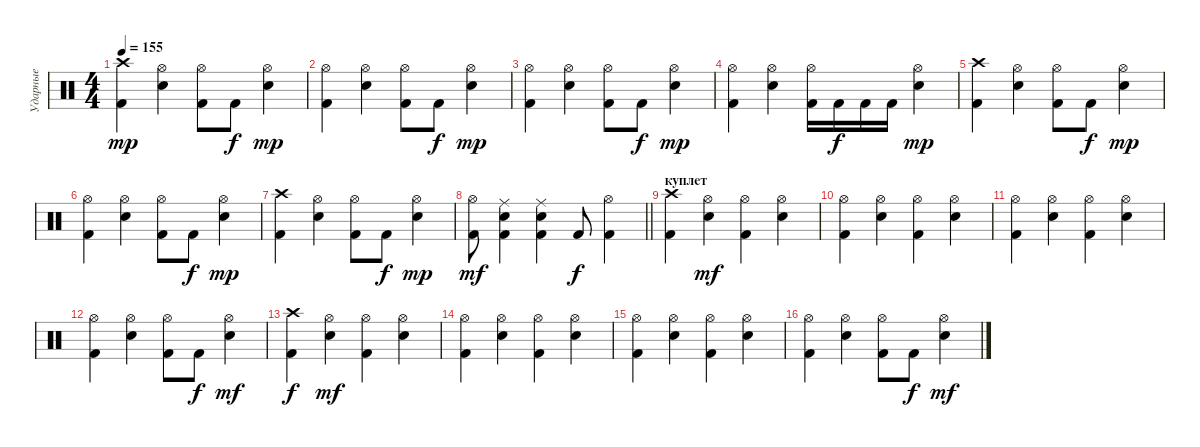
\track ("Ударные" "Ударные") {instrument percussion}
\staff {score}
\articulation defaults
\ts (4 4)
\tempo 155
\clef neutral
\ks c
("Kick (hit) 2" "Crash high (hit)").4{dy mp} ("Snare (hit) 2" "Hi-Hat (open)").4 ("Kick (hit) 2" "Hi-Hat (open)").8 "Kick (hit) 2".8{dy f} ("Snare (hit) 2" "Hi-Hat (open)").4{dy mp} |
("Kick (hit) 2" "Hi-Hat (open)").4 ("Snare (hit) 2" "Hi-Hat (open)").4 ("Kick (hit) 2" "Hi-Hat (open)").8 "Kick (hit) 2".8{dy f} ("Snare (hit) 2" "Hi-Hat (open)").4{dy mp} |
("Kick (hit) 2" "Hi-Hat (open)").4 ("Snare (hit) 2" "Hi-Hat (open)").4 ("Kick (hit) 2" "Hi-Hat (open)").8 "Kick (hit) 2".8{dy f} ("Snare (hit) 2" "Hi-Hat (open)").4{dy mp} |
("Kick (hit) 2" "Hi-Hat (open)").4 ("Snare (hit) 2" "Hi-Hat (open)").4 ("Kick (hit) 2" "Hi-Hat (open)").16 "Kick (hit) 2".16{dy f} "Kick (hit) 2".16 "Kick (hit) 2".16 ("Snare (hit) 2" "Hi-Hat (open)").4{dy mp} |
("Kick (hit) 2" "Crash high (hit)").4 ("Snare (hit) 2" "Hi-Hat (open)").4 ("Kick (hit) 2" "Hi-Hat (open)").8 "Kick (hit) 2".8{dy f} ("Snare (hit) 2" "Hi-Hat (open)").4{dy mp} |
("Kick (hit) 2" "Hi-Hat (open)").4 ("Snare (hit) 2" "Hi-Hat (open)").4 ("Kick (hit) 2" "Hi-Hat (open)").8 "Kick (hit) 2".8{dy f} ("Snare (hit) 2" "Hi-Hat (open)").4{dy mp} |
("Kick (hit) 2" "Crash high (hit)").4 ("Snare (hit) 2" "Hi-Hat (open)").4 ("Kick (hit) 2" "Hi-Hat (open)").8 "Kick (hit) 2".8{dy f} ("Snare (hit) 2" "Hi-Hat (open)").4{dy mp} |
\barLineRight lightlight
("Kick (hit) 2" "Hi-Hat (open)").8{dy mf} ("Kick (hit) 2" "Snare (hit) 2" "Ride (middle)").4 ("Kick (hit) 2" "Snare (hit) 2" "Ride (middle)").4 "Kick (hit) 2".8{dy f} ("Kick (hit) 2" "Hi-Hat (open)").4 |
\section ("" "куплет")
("Kick (hit) 2" "Crash high (hit)").4 ("Snare (hit) 2" "Hi-Hat (open)").4{dy mf} ("Kick (hit) 2" "Hi-Hat (open)").4 ("Snare (hit) 2" "Hi-Hat (open)").4 |
("Kick (hit) 2" "Hi-Hat (open)").4 ("Snare (hit) 2" "Hi-Hat (open)").4 ("Kick (hit) 2" "Hi-Hat (open)").4 ("Snare (hit) 2" "Hi-Hat (open)").4 |
("Kick (hit) 2" "Hi-Hat (open)").4 ("Snare (hit) 2" "Hi-Hat (open)").4 ("Kick (hit) 2" "Hi-Hat (open)").4 ("Snare (hit) 2" "Hi-Hat (open)").4 |
("Kick (hit) 2" "Hi-Hat (open)").4 ("Snare (hit) 2" "Hi-Hat (open)").4 ("Kick (hit) 2" "Hi-Hat (open)").8 "Kick (hit) 2".8{dy f} ("Snare (hit) 2" "Hi-Hat (open)").4{dy mf} |
("Kick (hit) 2" "Crash high (hit)").4{dy f} ("Snare (hit) 2" "Hi-Hat (open)").4{dy mf} ("Kick (hit) 2" "Hi-Hat (open)").4 ("Snare (hit) 2" "Hi-Hat (open)").4 |
("Kick (hit) 2" "Hi-Hat (open)").4 ("Snare (hit) 2" "Hi-Hat (open)").4 ("Kick (hit) 2" "Hi-Hat (open)").4 ("Snare (hit) 2" "Hi-Hat (open)").4 |
("Kick (hit) 2" "Hi-Hat (open)").4 ("Snare (hit) 2" "Hi-Hat (open)").4 ("Kick (hit) 2" "Hi-Hat (open)").4 ("Snare (hit) 2" "Hi-Hat (open)").4 |
("Kick (hit) 2" "Hi-Hat (open)").4 ("Snare (hit) 2" "Hi-Hat (open)").4 ("Kick (hit) 2" "Hi-Hat (open)").8 "Kick (hit) 2".8{dy f} ("Snare (hit) 2" "Hi-Hat (open)").4{dy mf}
